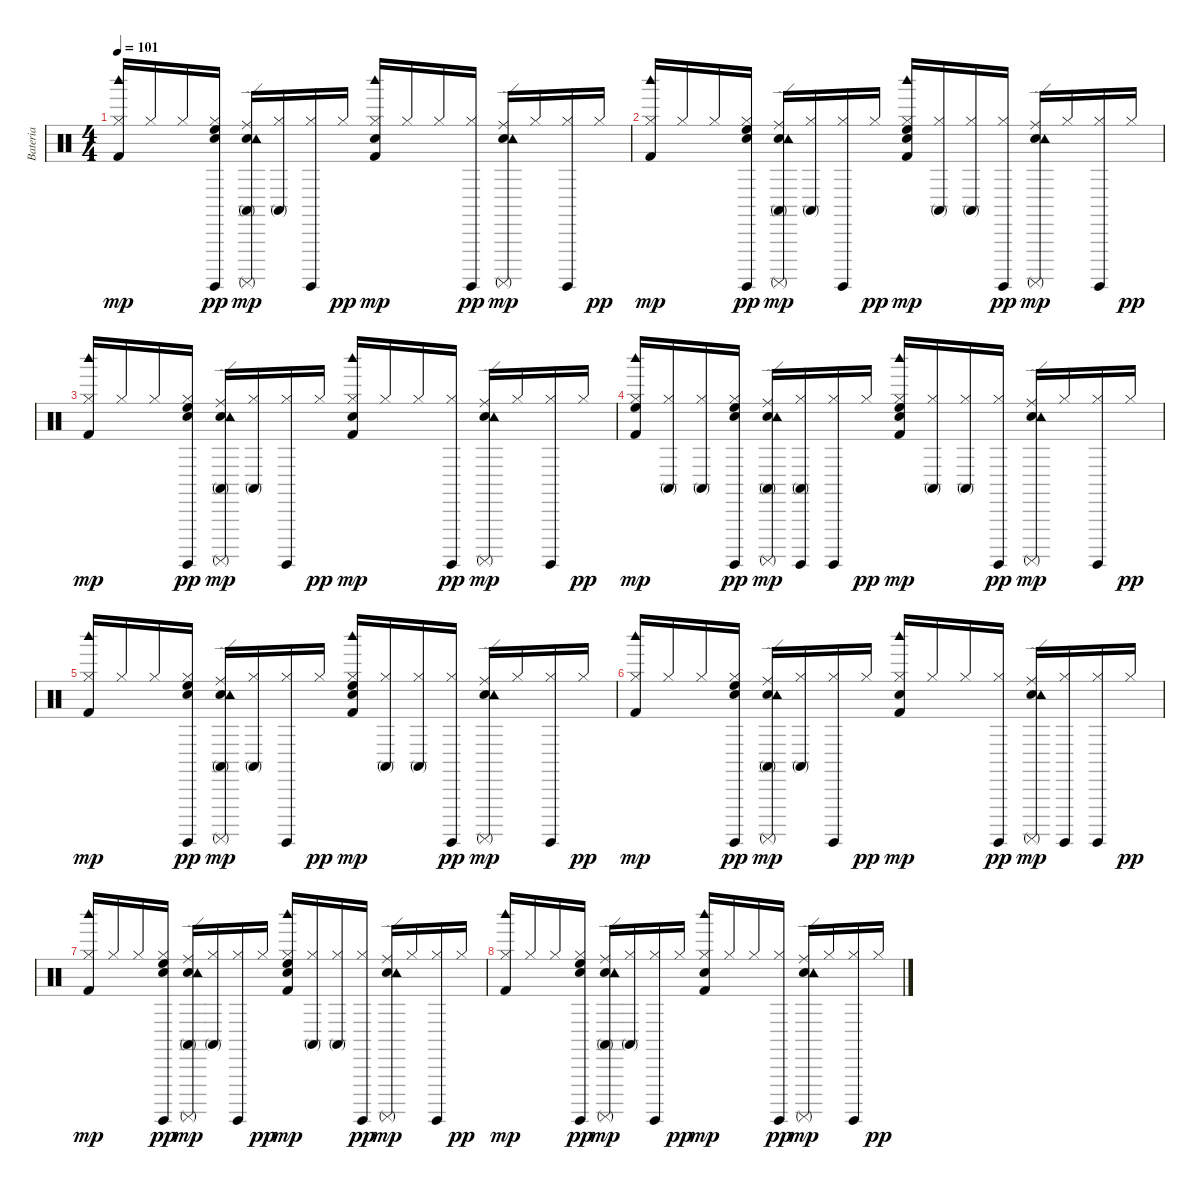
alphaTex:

\track ("Bateria" "Bateria") {instrument percussion}
\staff {score}
\articulation defaults
\ts (4 4)
\tempo 101
\clef neutral
\ks c
("Kick (hit) 2" "Hi-Hat (closed)" "Woodblock high (hit)").16{dy mp} "Hi-Hat (closed)".16 "Hi-Hat (closed)".16 ("High Floor Tom (hit)" "Snare (hit)" "Surdo (hit)" "Hi-Hat (closed)").16{dy pp} ("Conga high (mute)" "Ride (edge)" "Electric Snare (hit)" "Surdo (mute)" "Tambourine (hit)").16{dy mp} ("Conga high (mute)" "Hi-Hat (closed)").16 ("Surdo (hit)" "Hi-Hat (closed)").16 "Hi-Hat (closed)".16{dy pp} ("Snare (hit)" "Kick (hit) 2" "Hi-Hat (closed)" "Woodblock high (hit)").16{dy mp} "Hi-Hat (closed)".16 "Hi-Hat (closed)".16 ("Surdo (hit)" "Hi-Hat (closed)").16{dy pp} ("Ride (edge)" "Electric Snare (hit)" "Surdo (mute)" "Tambourine (hit)").16{dy mp} "Hi-Hat (closed)".16 ("Surdo (hit)" "Hi-Hat (closed)").16 "Hi-Hat (closed)".16{dy pp} |
("Hi-Hat (closed)" "Woodblock high (hit)" "Kick (hit) 2").16{dy mp} "Hi-Hat (closed)".16 "Hi-Hat (closed)".16 ("High Floor Tom (hit)" "Snare (hit)" "Surdo (hit)" "Hi-Hat (closed)").16{dy pp} ("Conga high (mute)" "Ride (edge)" "Electric Snare (hit)" "Surdo (mute)" "Tambourine (hit)").16{dy mp} ("Conga high (mute)" "Hi-Hat (closed)").16 ("Surdo (hit)" "Hi-Hat (closed)").16 "Hi-Hat (closed)".16{dy pp} ("High Floor Tom (hit)" "Snare (hit)" "Kick (hit) 2" "Hi-Hat (closed)" "Woodblock high (hit)").16{dy mp} ("Conga high (mute)" "Hi-Hat (closed)").16 ("Conga high (mute)" "Hi-Hat (closed)").16 ("Surdo (hit)" "Hi-Hat (closed)").16{dy pp} ("Ride (edge)" "Electric Snare (hit)" "Surdo (mute)" "Tambourine (hit)").16{dy mp} "Hi-Hat (closed)".16 ("Surdo (hit)" "Hi-Hat (closed)").16 "Hi-Hat (closed)".16{dy pp} |
("Kick (hit) 2" "Hi-Hat (closed)" "Woodblock high (hit)").16{dy mp} "Hi-Hat (closed)".16 "Hi-Hat (closed)".16 ("High Floor Tom (hit)" "Snare (hit)" "Surdo (hit)" "Hi-Hat (closed)").16{dy pp} ("Conga high (mute)" "Ride (edge)" "Electric Snare (hit)" "Surdo (mute)" "Tambourine (hit)").16{dy mp} ("Conga high (mute)" "Hi-Hat (closed)").16 ("Surdo (hit)" "Hi-Hat (closed)").16 "Hi-Hat (closed)".16{dy pp} ("Snare (hit)" "Kick (hit) 2" "Hi-Hat (closed)" "Woodblock high (hit)").16{dy mp} "Hi-Hat (closed)".16 "Hi-Hat (closed)".16 ("Surdo (hit)" "Hi-Hat (closed)").16{dy pp} ("Ride (edge)" "Electric Snare (hit)" "Surdo (mute)" "Tambourine (hit)").16{dy mp} "Hi-Hat (closed)".16 ("Surdo (hit)" "Hi-Hat (closed)").16 "Hi-Hat (closed)".16{dy pp} |
("High Floor Tom (hit)" "Kick (hit) 2" "Hi-Hat (closed)" "Woodblock high (hit)").16{dy mp} ("Conga high (mute)" "Hi-Hat (closed)").16 ("Conga high (mute)" "Hi-Hat (closed)").16 ("High Floor Tom (hit)" "Snare (hit)" "Surdo (hit)" "Hi-Hat (closed)").16{dy pp} ("Conga high (mute)" "Ride (edge)" "Electric Snare (hit)" "Surdo (mute)" "Tambourine (hit)").16{dy mp} ("Conga high (mute)" "Surdo (hit)" "Hi-Hat (closed)").16 ("Surdo (hit)" "Hi-Hat (closed)").16 "Hi-Hat (closed)".16{dy pp} ("High Floor Tom (hit)" "Snare (hit)" "Kick (hit) 2" "Hi-Hat (closed)" "Woodblock high (hit)").16{dy mp} ("Conga high (mute)" "Hi-Hat (closed)").16 ("Conga high (mute)" "Hi-Hat (closed)").16 ("Surdo (hit)" "Hi-Hat (closed)").16{dy pp} ("Ride (edge)" "Electric Snare (hit)" "Surdo (mute)" "Tambourine (hit)").16{dy mp} "Hi-Hat (closed)".16 ("Surdo (hit)" "Hi-Hat (closed)").16 "Hi-Hat (closed)".16{dy pp} |
("Kick (hit) 2" "Hi-Hat (closed)" "Woodblock high (hit)").16{dy mp} "Hi-Hat (closed)".16 "Hi-Hat (closed)".16 ("High Floor Tom (hit)" "Snare (hit)" "Surdo (hit)" "Hi-Hat (closed)").16{dy pp} ("Conga high (mute)" "Ride (edge)" "Electric Snare (hit)" "Surdo (mute)" "Tambourine (hit)").16{dy mp} ("Conga high (mute)" "Hi-Hat (closed)").16 ("Surdo (hit)" "Hi-Hat (closed)").16 "Hi-Hat (closed)".16{dy pp} ("High Floor Tom (hit)" "Snare (hit)" "Kick (hit) 2" "Hi-Hat (closed)" "Woodblock high (hit)").16{dy mp} ("Conga high (mute)" "Hi-Hat (closed)").16 ("Conga high (mute)" "Hi-Hat (closed)").16 ("Surdo (hit)" "Hi-Hat (closed)").16{dy pp} ("Ride (edge)" "Electric Snare (hit)" "Surdo (mute)" "Tambourine (hit)").16{dy mp} "Hi-Hat (closed)".16 ("Surdo (hit)" "Hi-Hat (closed)").16 "Hi-Hat (closed)".16{dy pp} |
("Kick (hit) 2" "Hi-Hat (closed)" "Woodblock high (hit)").16{dy mp} "Hi-Hat (closed)".16 "Hi-Hat (closed)".16 ("High Floor Tom (hit)" "Snare (hit)" "Surdo (hit)" "Hi-Hat (closed)").16{dy pp} ("Conga high (mute)" "Ride (edge)" "Electric Snare (hit)" "Surdo (mute)" "Tambourine (hit)").16{dy mp} ("Conga high (mute)" "Hi-Hat (closed)").16 ("Surdo (hit)" "Hi-Hat (closed)").16 "Hi-Hat (closed)".16{dy pp} ("Snare (hit)" "Kick (hit) 2" "Hi-Hat (closed)" "Woodblock high (hit)").16{dy mp} "Hi-Hat (closed)".16 "Hi-Hat (closed)".16 ("Surdo (hit)" "Hi-Hat (closed)").16{dy pp} ("Ride (edge)" "Electric Snare (hit)" "Surdo (mute)" "Tambourine (hit)").16{dy mp} ("Surdo (hit)" "Hi-Hat (closed)").16 ("Surdo (hit)" "Hi-Hat (closed)").16 "Hi-Hat (closed)".16{dy pp} |
("Woodblock high (hit)" "Kick (hit) 2" "Hi-Hat (closed)").16{dy mp} "Hi-Hat (closed)".16 "Hi-Hat (closed)".16 ("High Floor Tom (hit)" "Snare (hit)" "Surdo (hit)" "Hi-Hat (closed)").16{dy pp} ("Conga high (mute)" "Ride (edge)" "Electric Snare (hit)" "Surdo (mute)" "Tambourine (hit)").16{dy mp} ("Conga high (mute)" "Hi-Hat (closed)").16 ("Surdo (hit)" "Hi-Hat (closed)").16 "Hi-Hat (closed)".16{dy pp} ("High Floor Tom (hit)" "Snare (hit)" "Kick (hit) 2" "Hi-Hat (closed)" "Woodblock high (hit)").16{dy mp} ("Conga high (mute)" "Hi-Hat (closed)").16 ("Conga high (mute)" "Hi-Hat (closed)").16 ("Surdo (hit)" "Hi-Hat (closed)").16{dy pp} ("Ride (edge)" "Electric Snare (hit)" "Surdo (mute)" "Tambourine (hit)").16{dy mp} "Hi-Hat (closed)".16 ("Surdo (hit)" "Hi-Hat (closed)").16 "Hi-Hat (closed)".16{dy pp} |
("Kick (hit) 2" "Hi-Hat (closed)" "Woodblock high (hit)").16{dy mp} "Hi-Hat (closed)".16 "Hi-Hat (closed)".16 ("High Floor Tom (hit)" "Snare (hit)" "Surdo (hit)" "Hi-Hat (closed)").16{dy pp} ("Conga high (mute)" "Ride (edge)" "Electric Snare (hit)" "Surdo (mute)" "Tambourine (hit)").16{dy mp} ("Conga high (mute)" "Hi-Hat (closed)").16 ("Surdo (hit)" "Hi-Hat (closed)").16 "Hi-Hat (closed)".16{dy pp} ("Snare (hit)" "Kick (hit) 2" "Hi-Hat (closed)" "Woodblock high (hit)").16{dy mp} "Hi-Hat (closed)".16 "Hi-Hat (closed)".16 ("Surdo (hit)" "Hi-Hat (closed)").16{dy pp} ("Ride (edge)" "Electric Snare (hit)" "Surdo (mute)" "Tambourine (hit)").16{dy mp} "Hi-Hat (closed)".16 ("Surdo (hit)" "Hi-Hat (closed)").16 "Hi-Hat (closed)".16{dy pp}
